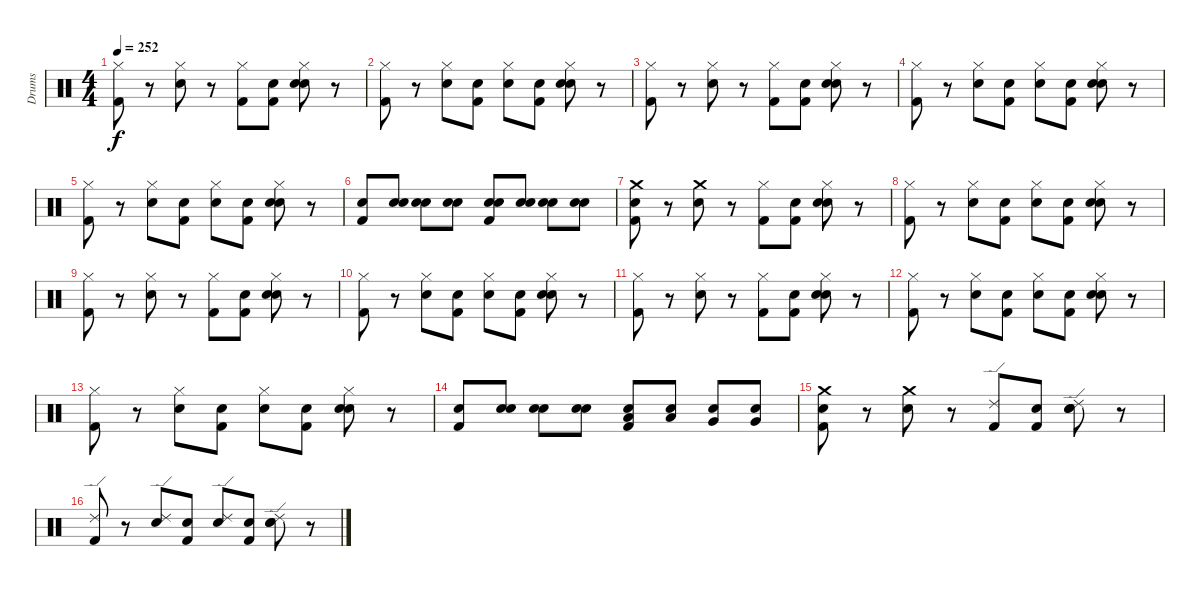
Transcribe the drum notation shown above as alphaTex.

\track ("Drums" "Drums") {instrument percussion}
\staff {score}
\articulation defaults
\ts (4 4)
\tempo 252
\clef neutral
\ks c
("Hi-Hat (closed)" "Kick (hit) 2").8{dy f} r.8 ("Hi-Hat (closed)" "Electric Snare (hit)").8 r.8 ("Hi-Hat (closed)" "Kick (hit) 2").8 ("Snare (hit)" "Kick (hit) 2").8 ("Snare (hit)" "Hi-Hat (closed)" "Electric Snare (hit)").8 r.8 |
("Hi-Hat (closed)" "Kick (hit) 2").8 r.8 ("Hi-Hat (closed)" "Electric Snare (hit)").8 ("Snare (hit)" "Kick (hit) 2").8 ("Snare (hit)" "Hi-Hat (closed)").8 ("Snare (hit)" "Kick (hit) 2").8 ("Snare (hit)" "Hi-Hat (closed)" "Electric Snare (hit)").8 r.8 |
("Hi-Hat (closed)" "Kick (hit) 2").8 r.8 ("Hi-Hat (closed)" "Electric Snare (hit)").8 r.8 ("Hi-Hat (closed)" "Kick (hit) 2").8 ("Snare (hit)" "Kick (hit) 2").8 ("Snare (hit)" "Hi-Hat (closed)" "Electric Snare (hit)").8 r.8 |
("Hi-Hat (closed)" "Kick (hit) 2").8 r.8 ("Hi-Hat (closed)" "Electric Snare (hit)").8 ("Snare (hit)" "Kick (hit) 2").8 ("Snare (hit)" "Hi-Hat (closed)").8 ("Snare (hit)" "Kick (hit) 2").8 ("Snare (hit)" "Hi-Hat (closed)" "Electric Snare (hit)").8 r.8 |
("Hi-Hat (closed)" "Kick (hit) 2").8 r.8 ("Hi-Hat (closed)" "Electric Snare (hit)").8 ("Snare (hit)" "Kick (hit) 2").8 ("Snare (hit)" "Hi-Hat (closed)").8 ("Snare (hit)" "Kick (hit) 2").8 ("Snare (hit)" "Hi-Hat (closed)" "Electric Snare (hit)").8 r.8 |
("Electric Snare (hit)" "Kick (hit) 2").8 ("Snare (hit)" "Electric Snare (hit)").8 ("Snare (hit)" "Electric Snare (hit)").8 ("Snare (hit)" "Electric Snare (hit)").8 ("Snare (hit)" "Electric Snare (hit)" "Kick (hit) 2").8 ("Snare (hit)" "Electric Snare (hit)").8 ("Snare (hit)" "Electric Snare (hit)").8 ("Snare (hit)" "Electric Snare (hit)").8 |
("Snare (hit)" "Crash medium (hit)" "Kick (hit) 2").8 r.8 ("Crash medium (hit)" "Electric Snare (hit)").8 r.8 ("Hi-Hat (closed)" "Kick (hit) 2").8 ("Snare (hit)" "Kick (hit) 2").8 ("Snare (hit)" "Hi-Hat (closed)" "Electric Snare (hit)").8 r.8 |
("Hi-Hat (closed)" "Kick (hit) 2").8 r.8 ("Hi-Hat (closed)" "Electric Snare (hit)").8 ("Snare (hit)" "Kick (hit) 2").8 ("Snare (hit)" "Hi-Hat (closed)").8 ("Snare (hit)" "Kick (hit) 2").8 ("Snare (hit)" "Hi-Hat (closed)" "Electric Snare (hit)").8 r.8 |
("Hi-Hat (closed)" "Kick (hit) 2").8 r.8 ("Hi-Hat (closed)" "Electric Snare (hit)").8 r.8 ("Hi-Hat (closed)" "Kick (hit) 2").8 ("Snare (hit)" "Kick (hit) 2").8 ("Snare (hit)" "Hi-Hat (closed)" "Electric Snare (hit)").8 r.8 |
("Hi-Hat (closed)" "Kick (hit) 2").8 r.8 ("Hi-Hat (closed)" "Electric Snare (hit)").8 ("Snare (hit)" "Kick (hit) 2").8 ("Snare (hit)" "Hi-Hat (closed)").8 ("Snare (hit)" "Kick (hit) 2").8 ("Snare (hit)" "Hi-Hat (closed)" "Electric Snare (hit)").8 r.8 |
("Hi-Hat (closed)" "Kick (hit) 2").8 r.8 ("Hi-Hat (closed)" "Electric Snare (hit)").8 r.8 ("Hi-Hat (closed)" "Kick (hit) 2").8 ("Snare (hit)" "Kick (hit) 2").8 ("Snare (hit)" "Hi-Hat (closed)" "Electric Snare (hit)").8 r.8 |
("Hi-Hat (closed)" "Kick (hit) 2").8 r.8 ("Hi-Hat (closed)" "Electric Snare (hit)").8 ("Snare (hit)" "Kick (hit) 2").8 ("Snare (hit)" "Hi-Hat (closed)").8 ("Snare (hit)" "Kick (hit) 2").8 ("Snare (hit)" "Hi-Hat (closed)" "Electric Snare (hit)").8 r.8 |
("Hi-Hat (closed)" "Kick (hit) 2").8 r.8 ("Hi-Hat (closed)" "Electric Snare (hit)").8 ("Snare (hit)" "Kick (hit) 2").8 ("Snare (hit)" "Hi-Hat (closed)").8 ("Snare (hit)" "Kick (hit) 2").8 ("Snare (hit)" "Hi-Hat (closed)" "Electric Snare (hit)").8 r.8 |
("Electric Snare (hit)" "Kick (hit) 2").8 ("Snare (hit)" "Electric Snare (hit)").8 ("Snare (hit)" "Electric Snare (hit)").8 ("Snare (hit)" "Electric Snare (hit)").8 ("Snare (hit)" "Low Tom (hit)" "Kick (hit) 2").8 ("Snare (hit)" "Low Tom (hit)").8 ("Snare (hit)" "Very Low Tom (hit)").8 ("Snare (hit)" "Very Low Tom (hit)").8 |
("Snare (hit)" "Crash medium (hit)" "Kick (hit) 2").8 r.8 ("Crash medium (hit)" "Electric Snare (hit)").8 r.8 ("Ride (edge) 2" "Kick (hit) 2").8 ("Snare (hit)" "Kick (hit) 2").8 ("Snare (hit)" "Ride (edge) 2" "Electric Snare (hit)").8 r.8 |
("Ride (edge) 2" "Kick (hit) 2").8 r.8 ("Ride (edge) 2" "Electric Snare (hit)").8 ("Snare (hit)" "Kick (hit) 2").8 ("Snare (hit)" "Ride (edge) 2").8 ("Snare (hit)" "Kick (hit) 2").8 ("Snare (hit)" "Ride (edge) 2" "Electric Snare (hit)").8 r.8
